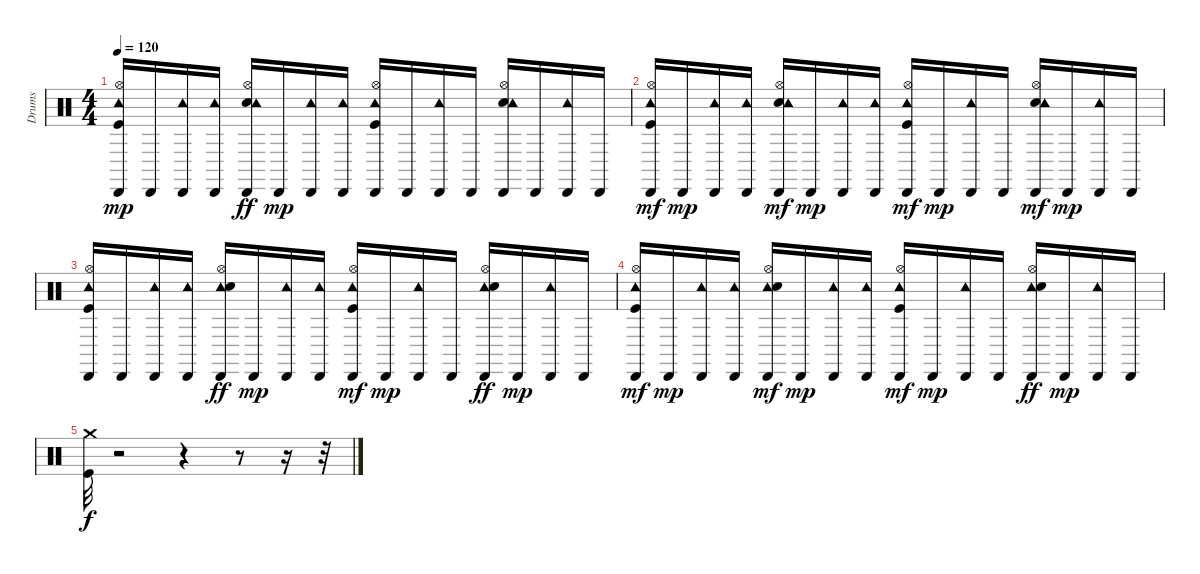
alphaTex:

\track ("Drums" "Drums") {instrument percussion}
\staff {score}
\articulation defaults
\ts (4 4)
\tempo 120
\clef neutral
\ks c
("Hi-Hat (open)" "Tambourine (hit)" "Cabasa (hit)" "Kick (hit)").16{dy mp} "Cabasa (hit)".16 ("Tambourine (hit)" "Cabasa (hit)").16 ("Cabasa (hit)" "Tambourine (hit)").16 ("Cabasa (hit)" "Hi-Hat (open)" "Electric Snare (hit)" "Tambourine (hit)").16{dy ff} "Cabasa (hit)".16{dy mp} ("Tambourine (hit)" "Cabasa (hit)").16 ("Tambourine (hit)" "Cabasa (hit)").16 ("Kick (hit)" "Hi-Hat (open)" "Cabasa (hit)" "Tambourine (hit)").16 "Cabasa (hit)".16 ("Tambourine (hit)" "Cabasa (hit)").16 "Cabasa (hit)".16 ("Hi-Hat (open)" "Electric Snare (hit)" "Cabasa (hit)" "Tambourine (hit)").16 "Cabasa (hit)".16 ("Tambourine (hit)" "Cabasa (hit)").16 "Cabasa (hit)".16 |
("Cabasa (hit)" "Tambourine (hit)" "Hi-Hat (open)" "Kick (hit)").16{dy mf} "Cabasa (hit)".16{dy mp} ("Cabasa (hit)" "Tambourine (hit)").16 ("Tambourine (hit)" "Cabasa (hit)").16 ("Cabasa (hit)" "Electric Snare (hit)" "Hi-Hat (open)" "Tambourine (hit)").16{dy mf} "Cabasa (hit)".16{dy mp} ("Cabasa (hit)" "Tambourine (hit)").16 ("Tambourine (hit)" "Cabasa (hit)").16 ("Kick (hit)" "Cabasa (hit)" "Tambourine (hit)" "Hi-Hat (open)").16{dy mf} "Cabasa (hit)".16{dy mp} ("Cabasa (hit)" "Tambourine (hit)").16 "Cabasa (hit)".16 ("Electric Snare (hit)" "Cabasa (hit)" "Tambourine (hit)" "Hi-Hat (open)").16{dy mf} "Cabasa (hit)".16{dy mp} ("Cabasa (hit)" "Tambourine (hit)").16 "Cabasa (hit)".16 |
("Tambourine (hit)" "Kick (hit)" "Hi-Hat (open)" "Cabasa (hit)").16 "Cabasa (hit)".16 ("Tambourine (hit)" "Cabasa (hit)").16 ("Tambourine (hit)" "Cabasa (hit)").16 ("Cabasa (hit)" "Tambourine (hit)" "Hi-Hat (open)" "Electric Snare (hit)").16{dy ff} "Cabasa (hit)".16{dy mp} ("Cabasa (hit)" "Tambourine (hit)").16 ("Tambourine (hit)" "Cabasa (hit)").16 ("Cabasa (hit)" "Tambourine (hit)" "Hi-Hat (open)" "Kick (hit)").16{dy mf} "Cabasa (hit)".16{dy mp} ("Cabasa (hit)" "Tambourine (hit)").16 "Cabasa (hit)".16 ("Cabasa (hit)" "Tambourine (hit)" "Hi-Hat (open)" "Electric Snare (hit)").16{dy ff} "Cabasa (hit)".16{dy mp} ("Cabasa (hit)" "Tambourine (hit)").16 "Cabasa (hit)".16 |
("Kick (hit)" "Cabasa (hit)" "Tambourine (hit)" "Hi-Hat (open)").16{dy mf} "Cabasa (hit)".16{dy mp} ("Cabasa (hit)" "Tambourine (hit)").16 ("Cabasa (hit)" "Tambourine (hit)").16 ("Cabasa (hit)" "Tambourine (hit)" "Electric Snare (hit)" "Hi-Hat (open)").16{dy mf} "Cabasa (hit)".16{dy mp} ("Cabasa (hit)" "Tambourine (hit)").16 ("Tambourine (hit)" "Cabasa (hit)").16 ("Cabasa (hit)" "Kick (hit)" "Hi-Hat (open)" "Tambourine (hit)").16{dy mf} "Cabasa (hit)".16{dy mp} ("Cabasa (hit)" "Tambourine (hit)").16 "Cabasa (hit)".16 ("Cabasa (hit)" "Tambourine (hit)" "Hi-Hat (open)" "Electric Snare (hit)").16{dy ff} "Cabasa (hit)".16{dy mp} ("Tambourine (hit)" "Cabasa (hit)").16 "Cabasa (hit)".16 |
("Kick (hit)" "Crash medium (hit)").32{dy f} r.2 r.4 r.8 r.16 r.32
